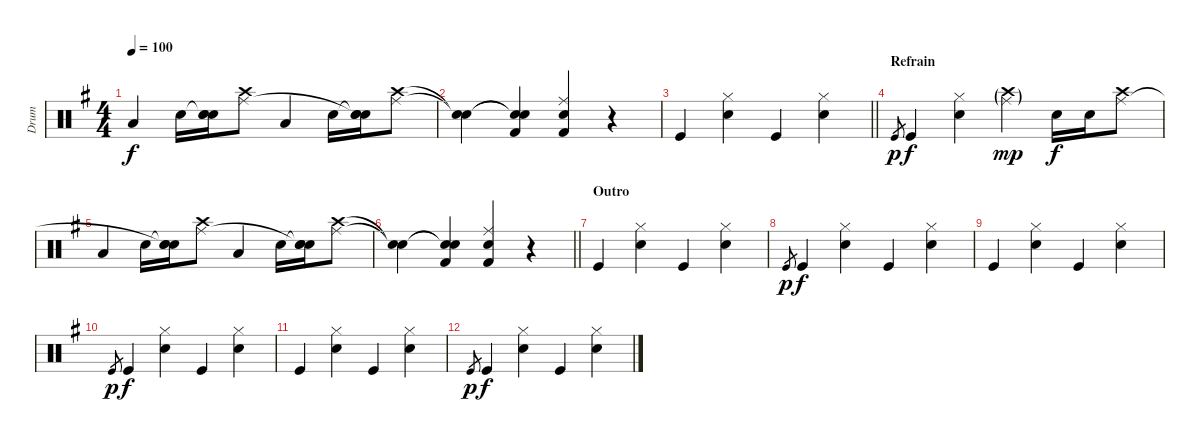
\track ("Drum" "Drum") {instrument percussion}
\staff {score}
\articulation defaults
\ts (4 4)
\tempo 100
\clef neutral
\ks eminor "Low Tom (hit)".4{dy f} "Snare (hit) 2".16
("Snare (hit)"{t} "Snare (hit)"{t} "Snare (hit) 2").16 ("Crash high (hit)" "Ride (middle)").8 "Low Tom (hit)".4 "Snare (hit) 2".16 ("Snare (hit)"{t} "Snare (hit)"{t} "Snare (hit) 2").16 ("Crash high (hit)" "Ride (middle)").8 |
("Snare (hit)"{t} "Snare (hit)"{t}).4 ("Snare (hit)"{t} "Snare (hit)"{t} "Kick (hit) 2").4 ("Ride (middle)" "Kick (hit) 2" "Snare (hit) 2").4 r.4 |
\barLineRight lightlight "Kick (hit)".4
("Snare (hit) 2" "Hi-Hat (closed)").4 "Kick (hit)".4 ("Snare (hit) 2" "Hi-Hat (closed)").4 |
\section ("" "Refrain")
"Kick (hit)"{h}.8{gr dy p} "Kick (hit)".4{dy f} ("Snare (hit) 2" "Hi-Hat (closed)").4 ("Ride (middle)"{g} "Crash high (hit)"{g}).4{dy mp} "Snare (hit) 2".16{dy f} "Snare (hit) 2".16 ("Crash high (hit)" "Ride (middle)").8 |
"Low Tom (hit)".4 "Snare (hit) 2".16 ("Snare (hit)"{t} "Snare (hit)"{t} "Snare (hit) 2").16 ("Crash high (hit)" "Ride (middle)").8 "Low Tom (hit)".4 "Snare (hit) 2".16 ("Snare (hit)"{t} "Snare (hit)"{t} "Snare (hit) 2").16 ("Crash high (hit)" "Ride (middle)").8 |
\barLineRight lightlight
("Snare (hit)"{t} "Snare (hit)"{t}).4 ("Snare (hit)"{t} "Snare (hit)"{t} "Kick (hit) 2").4 ("Ride (middle)" "Kick (hit) 2" "Snare (hit) 2").4 r.4 |
\section ("" "Outro")
"Kick (hit)".4 ("Snare (hit) 2" "Hi-Hat (closed)").4 "Kick (hit)".4 ("Snare (hit) 2" "Hi-Hat (closed)").4 |
"Kick (hit)"{h}.8{gr dy p} "Kick (hit)".4{dy f} ("Snare (hit) 2" "Hi-Hat (closed)").4 "Kick (hit)".4 ("Snare (hit) 2" "Hi-Hat (closed)").4 |
"Kick (hit)".4 ("Snare (hit) 2" "Hi-Hat (closed)").4 "Kick (hit)".4 ("Snare (hit) 2" "Hi-Hat (closed)").4 |
"Kick (hit)"{h}.8{gr dy p} "Kick (hit)".4{dy f} ("Snare (hit) 2" "Hi-Hat (closed)").4 "Kick (hit)".4 ("Snare (hit) 2" "Hi-Hat (closed)").4 |
"Kick (hit)".4 ("Snare (hit) 2" "Hi-Hat (closed)").4 "Kick (hit)".4 ("Snare (hit) 2" "Hi-Hat (closed)").4 |
"Kick (hit)"{h}.8{gr dy p} "Kick (hit)".4{dy f} ("Snare (hit) 2" "Hi-Hat (closed)").4 "Kick (hit)".4 ("Snare (hit) 2" "Hi-Hat (closed)").4
